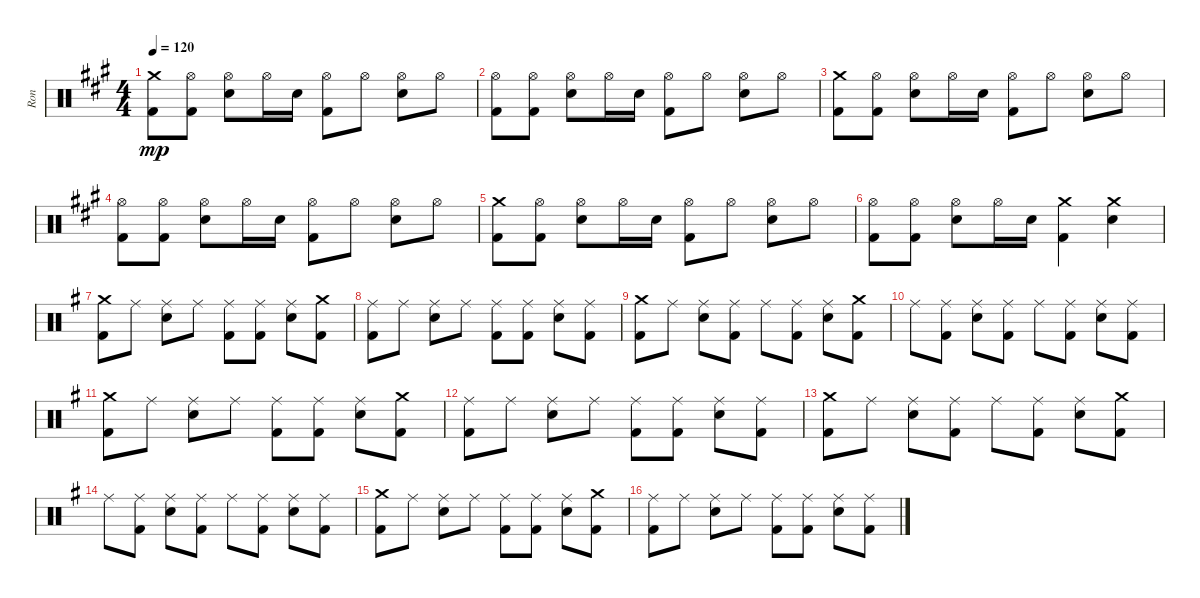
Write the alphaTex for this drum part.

\track ("Ron" "Ron") {instrument percussion}
\staff {score}
\articulation defaults
\ts (4 4)
\tempo 120
\clef neutral
\ks a
("Crash medium (hit)" "Kick (hit) 2").8{dy mp} ("Hi-Hat (open)" "Kick (hit) 2").8 ("Hi-Hat (open)" "Electric Snare (hit)").8 "Hi-Hat (open)".16 "Electric Snare (hit)".16 ("Hi-Hat (open)" "Kick (hit) 2").8 "Hi-Hat (open)".8 ("Hi-Hat (open)" "Electric Snare (hit)").8 "Hi-Hat (open)".8 |
("Hi-Hat (open)" "Kick (hit) 2").8 ("Hi-Hat (open)" "Kick (hit) 2").8 ("Hi-Hat (open)" "Electric Snare (hit)").8 "Hi-Hat (open)".16 "Electric Snare (hit)".16 ("Hi-Hat (open)" "Kick (hit) 2").8 "Hi-Hat (open)".8 ("Hi-Hat (open)" "Electric Snare (hit)").8 "Hi-Hat (open)".8 |
("Crash medium (hit)" "Kick (hit) 2").8 ("Hi-Hat (open)" "Kick (hit) 2").8 ("Hi-Hat (open)" "Electric Snare (hit)").8 "Hi-Hat (open)".16 "Electric Snare (hit)".16 ("Hi-Hat (open)" "Kick (hit) 2").8 "Hi-Hat (open)".8 ("Hi-Hat (open)" "Electric Snare (hit)").8 "Hi-Hat (open)".8 |
("Hi-Hat (open)" "Kick (hit) 2").8 ("Hi-Hat (open)" "Kick (hit) 2").8 ("Hi-Hat (open)" "Electric Snare (hit)").8 "Hi-Hat (open)".16 "Electric Snare (hit)".16 ("Hi-Hat (open)" "Kick (hit) 2").8 "Hi-Hat (open)".8 ("Hi-Hat (open)" "Electric Snare (hit)").8 "Hi-Hat (open)".8 |
("Crash medium (hit)" "Kick (hit) 2").8 ("Hi-Hat (open)" "Kick (hit) 2").8 ("Hi-Hat (open)" "Electric Snare (hit)").8 "Hi-Hat (open)".16 "Electric Snare (hit)".16 ("Hi-Hat (open)" "Kick (hit) 2").8 "Hi-Hat (open)".8 ("Hi-Hat (open)" "Electric Snare (hit)").8 "Hi-Hat (open)".8 |
("Hi-Hat (open)" "Kick (hit) 2").8 ("Hi-Hat (open)" "Kick (hit) 2").8 ("Hi-Hat (open)" "Electric Snare (hit)").8 "Hi-Hat (open)".16 "Electric Snare (hit)".16 ("Crash medium (hit)" "Kick (hit) 2").4 ("Crash medium (hit)" "Electric Snare (hit)").4 |
\ks g
("Crash medium (hit)" "Kick (hit) 2").8 "Ride (middle)".8 ("Ride (middle)" "Electric Snare (hit)").8 "Ride (middle)".8 ("Ride (middle)" "Kick (hit) 2").8 ("Ride (middle)" "Kick (hit) 2").8 ("Ride (middle)" "Electric Snare (hit)").8 ("Crash medium (hit)" "Kick (hit) 2").8 |
("Ride (middle)" "Kick (hit) 2").8 "Ride (middle)".8 ("Ride (middle)" "Electric Snare (hit)").8 "Ride (middle)".8 ("Ride (middle)" "Kick (hit) 2").8 ("Ride (middle)" "Kick (hit) 2").8 ("Ride (middle)" "Electric Snare (hit)").8 ("Ride (middle)" "Kick (hit) 2").8 |
("Crash medium (hit)" "Kick (hit) 2").8 "Ride (middle)".8 ("Ride (middle)" "Electric Snare (hit)").8 ("Ride (middle)" "Kick (hit) 2").8 "Ride (middle)".8 ("Ride (middle)" "Kick (hit) 2").8 ("Ride (middle)" "Electric Snare (hit)").8 ("Crash medium (hit)" "Kick (hit) 2").8 |
"Ride (middle)".8 ("Ride (middle)" "Kick (hit) 2").8 ("Ride (middle)" "Electric Snare (hit)").8 ("Ride (middle)" "Kick (hit) 2").8 "Ride (middle)".8 ("Ride (middle)" "Kick (hit) 2").8 ("Ride (middle)" "Electric Snare (hit)").8 ("Ride (middle)" "Kick (hit) 2").8 |
("Crash medium (hit)" "Kick (hit) 2").8 "Ride (middle)".8 ("Ride (middle)" "Electric Snare (hit)").8 "Ride (middle)".8 ("Ride (middle)" "Kick (hit) 2").8 ("Ride (middle)" "Kick (hit) 2").8 ("Ride (middle)" "Electric Snare (hit)").8 ("Crash medium (hit)" "Kick (hit) 2").8 |
("Ride (middle)" "Kick (hit) 2").8 "Ride (middle)".8 ("Ride (middle)" "Electric Snare (hit)").8 "Ride (middle)".8 ("Ride (middle)" "Kick (hit) 2").8 ("Ride (middle)" "Kick (hit) 2").8 ("Ride (middle)" "Electric Snare (hit)").8 ("Ride (middle)" "Kick (hit) 2").8 |
("Crash medium (hit)" "Kick (hit) 2").8 "Ride (middle)".8 ("Ride (middle)" "Electric Snare (hit)").8 ("Ride (middle)" "Kick (hit) 2").8 "Ride (middle)".8 ("Ride (middle)" "Kick (hit) 2").8 ("Ride (middle)" "Electric Snare (hit)").8 ("Crash medium (hit)" "Kick (hit) 2").8 |
"Ride (middle)".8 ("Ride (middle)" "Kick (hit) 2").8 ("Ride (middle)" "Electric Snare (hit)").8 ("Ride (middle)" "Kick (hit) 2").8 "Ride (middle)".8 ("Ride (middle)" "Kick (hit) 2").8 ("Ride (middle)" "Electric Snare (hit)").8 ("Ride (middle)" "Kick (hit) 2").8 |
("Crash medium (hit)" "Kick (hit) 2").8 "Ride (middle)".8 ("Ride (middle)" "Electric Snare (hit)").8 "Ride (middle)".8 ("Ride (middle)" "Kick (hit) 2").8 ("Ride (middle)" "Kick (hit) 2").8 ("Ride (middle)" "Electric Snare (hit)").8 ("Crash medium (hit)" "Kick (hit) 2").8 |
("Ride (middle)" "Kick (hit) 2").8 "Ride (middle)".8 ("Ride (middle)" "Electric Snare (hit)").8 "Ride (middle)".8 ("Ride (middle)" "Kick (hit) 2").8 ("Ride (middle)" "Kick (hit) 2").8 ("Ride (middle)" "Electric Snare (hit)").8 ("Ride (middle)" "Kick (hit) 2").8
